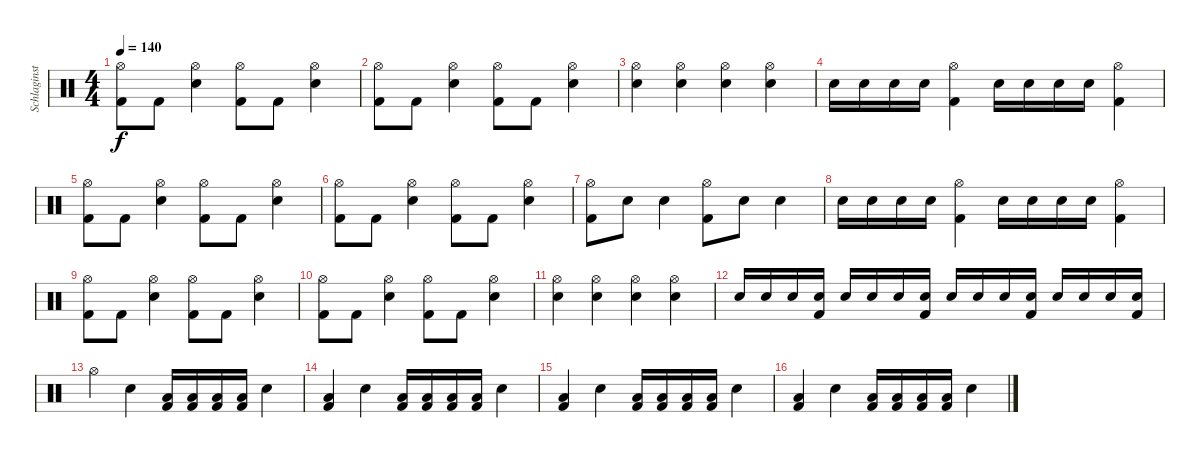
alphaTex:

\track ("Schlaginstrumente - Auswahl" "Schlaginst") {instrument percussion}
\staff {score}
\articulation defaults
\ts (4 4)
\tempo 140
\clef neutral
\ks c
("Hi-Hat (open)" "Kick (hit) 2").8{dy f} "Kick (hit) 2".8 ("Hi-Hat (open)" "Snare (hit) 2").4 ("Hi-Hat (open)" "Kick (hit) 2").8 "Kick (hit) 2".8 ("Hi-Hat (open)" "Snare (hit) 2").4 |
("Hi-Hat (open)" "Kick (hit) 2").8 "Kick (hit) 2".8 ("Hi-Hat (open)" "Snare (hit) 2").4 ("Hi-Hat (open)" "Kick (hit) 2").8 "Kick (hit) 2".8 ("Hi-Hat (open)" "Snare (hit) 2").4 |
("Hi-Hat (open)" "Snare (hit) 2").4 ("Hi-Hat (open)" "Snare (hit) 2").4 ("Hi-Hat (open)" "Snare (hit) 2").4 ("Hi-Hat (open)" "Snare (hit) 2").4 |
"Snare (hit) 2".16 "Snare (hit) 2".16 "Snare (hit) 2".16 "Snare (hit) 2".16 ("Hi-Hat (open)" "Kick (hit) 2").4 "Snare (hit) 2".16 "Snare (hit) 2".16 "Snare (hit) 2".16 "Snare (hit) 2".16 ("Hi-Hat (open)" "Kick (hit) 2").4 |
("Hi-Hat (open)" "Kick (hit) 2").8 "Kick (hit) 2".8 ("Hi-Hat (open)" "Snare (hit) 2").4 ("Hi-Hat (open)" "Kick (hit) 2").8 "Kick (hit) 2".8 ("Hi-Hat (open)" "Snare (hit) 2").4 |
("Hi-Hat (open)" "Kick (hit) 2").8 "Kick (hit) 2".8 ("Hi-Hat (open)" "Snare (hit) 2").4 ("Hi-Hat (open)" "Kick (hit) 2").8 "Kick (hit) 2".8 ("Hi-Hat (open)" "Snare (hit) 2").4 |
("Hi-Hat (open)" "Kick (hit) 2").8 "Snare (hit) 2".8 "Snare (hit) 2".4 ("Hi-Hat (open)" "Kick (hit) 2").8 "Snare (hit) 2".8 "Snare (hit) 2".4 |
"Snare (hit) 2".16 "Snare (hit) 2".16 "Snare (hit) 2".16 "Snare (hit) 2".16 ("Hi-Hat (open)" "Kick (hit) 2").4 "Snare (hit) 2".16 "Snare (hit) 2".16 "Snare (hit) 2".16 "Snare (hit) 2".16 ("Hi-Hat (open)" "Kick (hit) 2").4 |
("Hi-Hat (open)" "Kick (hit) 2").8 "Kick (hit) 2".8 ("Hi-Hat (open)" "Snare (hit) 2").4 ("Hi-Hat (open)" "Kick (hit) 2").8 "Kick (hit) 2".8 ("Hi-Hat (open)" "Snare (hit) 2").4 |
("Hi-Hat (open)" "Kick (hit) 2").8 "Kick (hit) 2".8 ("Hi-Hat (open)" "Snare (hit) 2").4 ("Hi-Hat (open)" "Kick (hit) 2").8 "Kick (hit) 2".8 ("Hi-Hat (open)" "Snare (hit) 2").4 |
("Hi-Hat (open)" "Snare (hit) 2").4 ("Hi-Hat (open)" "Snare (hit) 2").4 ("Hi-Hat (open)" "Snare (hit) 2").4 ("Hi-Hat (open)" "Snare (hit) 2").4 |
"Snare (hit) 2".16 "Snare (hit) 2".16 "Snare (hit) 2".16 ("Snare (hit) 2" "Kick (hit) 2").16 "Snare (hit) 2".16 "Snare (hit) 2".16 "Snare (hit) 2".16 ("Snare (hit) 2" "Kick (hit) 2").16 "Snare (hit) 2".16 "Snare (hit) 2".16 "Snare (hit) 2".16 ("Snare (hit) 2" "Kick (hit) 2").16 "Snare (hit) 2".16 "Snare (hit) 2".16 "Snare (hit) 2".16 ("Snare (hit) 2" "Kick (hit) 2").16 |
"Hi-Hat (open)".4 "Snare (hit) 2".4 ("Low Floor Tom (hit)" "Kick (hit) 2").16 ("Low Floor Tom (hit)" "Kick (hit) 2").16 ("Low Floor Tom (hit)" "Kick (hit) 2").16 ("Low Floor Tom (hit)" "Kick (hit) 2").16 "Snare (hit) 2".4 |
("Low Floor Tom (hit)" "Kick (hit) 2").4 "Snare (hit) 2".4 ("Low Floor Tom (hit)" "Kick (hit) 2").16 ("Low Floor Tom (hit)" "Kick (hit) 2").16 ("Low Floor Tom (hit)" "Kick (hit) 2").16 ("Low Floor Tom (hit)" "Kick (hit) 2").16 "Snare (hit) 2".4 |
("Low Floor Tom (hit)" "Kick (hit) 2").4 "Snare (hit) 2".4 ("Low Floor Tom (hit)" "Kick (hit) 2").16 ("Low Floor Tom (hit)" "Kick (hit) 2").16 ("Low Floor Tom (hit)" "Kick (hit) 2").16 ("Low Floor Tom (hit)" "Kick (hit) 2").16 "Snare (hit) 2".4 |
("Low Floor Tom (hit)" "Kick (hit) 2").4 "Snare (hit) 2".4 ("Low Floor Tom (hit)" "Kick (hit) 2").16 ("Low Floor Tom (hit)" "Kick (hit) 2").16 ("Low Floor Tom (hit)" "Kick (hit) 2").16 ("Low Floor Tom (hit)" "Kick (hit) 2").16 "Snare (hit) 2".4
